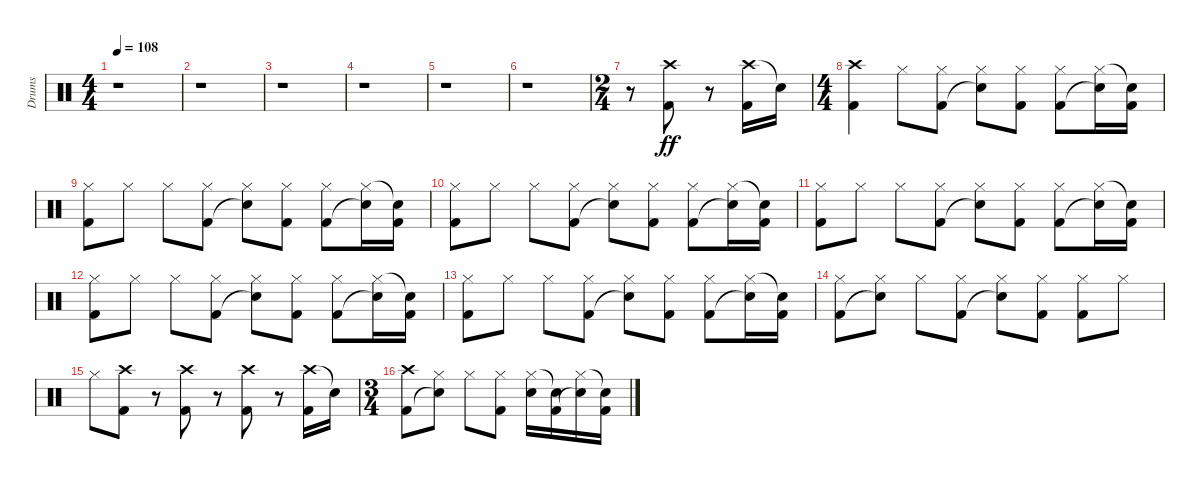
\track ("Drums" "Drums") {instrument percussion}
\staff {score}
\articulation defaults
\ts (4 4)
\tempo 108
\clef neutral
\ks c
r.1{dy ff} |
r.1 |
r.1 |
r.1 |
r.1 |
r.1 |
\ts (2 4)
r.8 ("Crash high (hit)" "Kick (hit) 2").8 r.8 ("Crash high (hit)" "Kick (hit) 2").16 "Snare (hit)"{t}.16 |
\ts (4 4)
("Crash high (hit)" "Kick (hit) 2").4 "Hi-Hat (closed)".8 ("Hi-Hat (closed)" "Kick (hit) 2").8 ("Hi-Hat (closed)" "Snare (hit)"{t}).8 ("Hi-Hat (closed)" "Kick (hit) 2").8 ("Hi-Hat (closed)" "Kick (hit) 2").8 ("Hi-Hat (closed)" "Snare (hit)"{t}).16 ("Snare (hit)"{t} "Kick (hit) 2").16 |
("Hi-Hat (closed)" "Kick (hit) 2").8 "Hi-Hat (closed)".8 "Hi-Hat (closed)".8 ("Hi-Hat (closed)" "Kick (hit) 2").8 ("Hi-Hat (closed)" "Snare (hit)"{t}).8 ("Hi-Hat (closed)" "Kick (hit) 2").8 ("Hi-Hat (closed)" "Kick (hit) 2").8 ("Hi-Hat (closed)" "Snare (hit)"{t}).16 ("Snare (hit)"{t} "Kick (hit) 2").16 |
("Hi-Hat (closed)" "Kick (hit) 2").8 "Hi-Hat (closed)".8 "Hi-Hat (closed)".8 ("Hi-Hat (closed)" "Kick (hit) 2").8 ("Hi-Hat (closed)" "Snare (hit)"{t}).8 ("Hi-Hat (closed)" "Kick (hit) 2").8 ("Hi-Hat (closed)" "Kick (hit) 2").8 ("Hi-Hat (closed)" "Snare (hit)"{t}).16 ("Snare (hit)"{t} "Kick (hit) 2").16 |
("Hi-Hat (closed)" "Kick (hit) 2").8 "Hi-Hat (closed)".8 "Hi-Hat (closed)".8 ("Hi-Hat (closed)" "Kick (hit) 2").8 ("Hi-Hat (closed)" "Snare (hit)"{t}).8 ("Hi-Hat (closed)" "Kick (hit) 2").8 ("Hi-Hat (closed)" "Kick (hit) 2").8 ("Hi-Hat (closed)" "Snare (hit)"{t}).16 ("Snare (hit)"{t} "Kick (hit) 2").16 |
("Hi-Hat (closed)" "Kick (hit) 2").8 "Hi-Hat (closed)".8 "Hi-Hat (closed)".8 ("Hi-Hat (closed)" "Kick (hit) 2").8 ("Hi-Hat (closed)" "Snare (hit)"{t}).8 ("Hi-Hat (closed)" "Kick (hit) 2").8 ("Hi-Hat (closed)" "Kick (hit) 2").8 ("Hi-Hat (closed)" "Snare (hit)"{t}).16 ("Snare (hit)"{t} "Kick (hit) 2").16 |
("Hi-Hat (closed)" "Kick (hit) 2").8 "Hi-Hat (closed)".8 "Hi-Hat (closed)".8 ("Hi-Hat (closed)" "Kick (hit) 2").8 ("Hi-Hat (closed)" "Snare (hit)"{t}).8 ("Hi-Hat (closed)" "Kick (hit) 2").8 ("Hi-Hat (closed)" "Kick (hit) 2").8 ("Hi-Hat (closed)" "Snare (hit)"{t}).16 ("Snare (hit)"{t} "Kick (hit) 2").16 |
("Hi-Hat (closed)" "Kick (hit) 2").8 ("Hi-Hat (closed)" "Snare (hit)"{t}).8 "Hi-Hat (closed)".8 ("Hi-Hat (closed)" "Kick (hit) 2").8 ("Hi-Hat (closed)" "Snare (hit)"{t}).8 ("Hi-Hat (closed)" "Kick (hit) 2").8 ("Hi-Hat (closed)" "Kick (hit) 2").8 "Hi-Hat (closed)".8 |
"Hi-Hat (closed)".8 ("Crash high (hit)" "Kick (hit) 2").8 r.8 ("Crash high (hit)" "Kick (hit) 2").8 r.8 ("Crash high (hit)" "Kick (hit) 2").8 r.8 ("Crash high (hit)" "Kick (hit) 2").16 "Snare (hit)"{t}.16 |
\ts (3 4)
("Crash high (hit)" "Kick (hit) 2").8 ("Hi-Hat (closed)" "Snare (hit)"{t}).8 "Hi-Hat (closed)".8 ("Hi-Hat (closed)" "Kick (hit) 2").8 ("Hi-Hat (closed)" "Snare (hit) 2").16 ("Snare (hit)"{t} "Kick (hit) 2").16 ("Hi-Hat (closed)" "Snare (hit)"{t}).16 ("Snare (hit)"{t} "Kick (hit) 2").16
